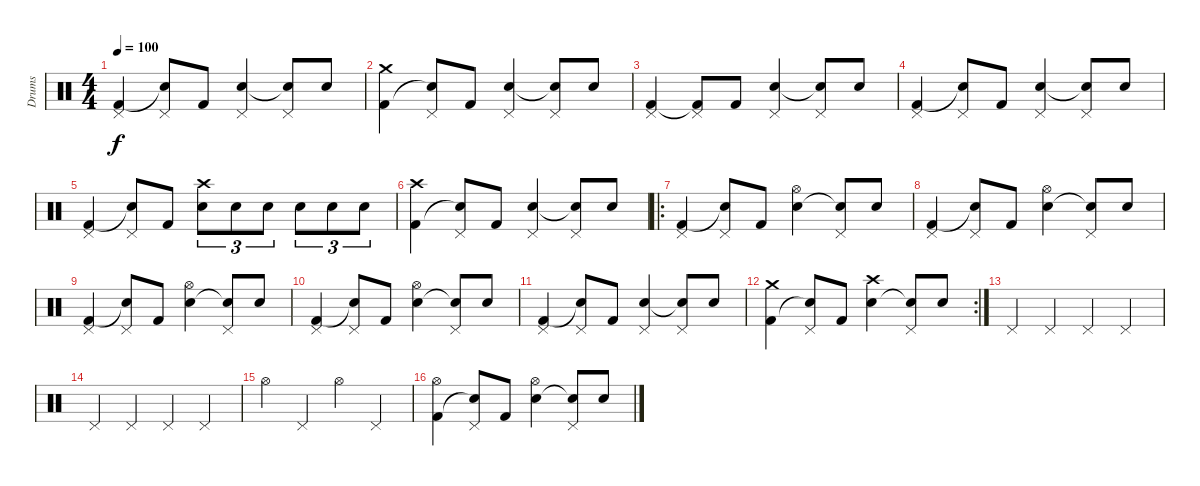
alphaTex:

\track ("Drums" "Drums") {instrument percussion}
\staff {score}
\articulation defaults
\ts (4 4)
\tempo 100
\clef neutral
\ks c
("Pedal Hi-Hat (hit)" "Kick (hit) 2").4{dy f} ("Pedal Hi-Hat (hit)" "Snare (hit)"{t}).8 "Kick (hit) 2".8 ("Pedal Hi-Hat (hit)" "Electric Snare (hit)").4 ("Pedal Hi-Hat (hit)" "Snare (hit)"{t}).8 "Electric Snare (hit)".8 |
("Crash medium (hit)" "Kick (hit) 2").4 ("Pedal Hi-Hat (hit)" "Snare (hit)"{t}).8 "Kick (hit) 2".8 ("Pedal Hi-Hat (hit)" "Electric Snare (hit)").4 ("Pedal Hi-Hat (hit)" "Snare (hit)"{t}).8 "Electric Snare (hit)".8 |
("Pedal Hi-Hat (hit)" "Kick (hit) 2").4 ("Pedal Hi-Hat (hit)" "Kick (hit) 2"{t}).8 "Kick (hit) 2".8 ("Pedal Hi-Hat (hit)" "Electric Snare (hit)").4 ("Pedal Hi-Hat (hit)" "Snare (hit)"{t}).8 "Electric Snare (hit)".8 |
("Pedal Hi-Hat (hit)" "Kick (hit) 2").4 ("Pedal Hi-Hat (hit)" "Snare (hit)"{t}).8 "Kick (hit) 2".8 ("Pedal Hi-Hat (hit)" "Electric Snare (hit)").4 ("Pedal Hi-Hat (hit)" "Snare (hit)"{t}).8 "Electric Snare (hit)".8 |
("Pedal Hi-Hat (hit)" "Kick (hit) 2").4 ("Pedal Hi-Hat (hit)" "Snare (hit)"{t}).8 "Kick (hit) 2".8 ("Crash high (hit)" "Electric Snare (hit)").8{tu (3 2)} "Electric Snare (hit)".8{tu (3 2)} "Electric Snare (hit)".8{tu (3 2)} "Electric Snare (hit)".8{tu (3 2)} "Electric Snare (hit)".8{tu (3 2)} "Electric Snare (hit)".8{tu (3 2)} |
("Crash high (hit)" "Kick (hit) 2").4 ("Pedal Hi-Hat (hit)" "Snare (hit)"{t}).8 "Kick (hit) 2".8 ("Pedal Hi-Hat (hit)" "Electric Snare (hit)").4 ("Pedal Hi-Hat (hit)" "Snare (hit)"{t}).8 "Electric Snare (hit)".8 |
\ro
("Pedal Hi-Hat (hit)" "Kick (hit) 2").4 ("Pedal Hi-Hat (hit)" "Snare (hit)"{t}).8 "Kick (hit) 2".8 ("Hi-Hat (open)" "Electric Snare (hit)").4 ("Pedal Hi-Hat (hit)" "Snare (hit)"{t}).8 "Electric Snare (hit)".8 |
("Pedal Hi-Hat (hit)" "Kick (hit) 2").4 ("Pedal Hi-Hat (hit)" "Snare (hit)"{t}).8 "Kick (hit) 2".8 ("Hi-Hat (open)" "Electric Snare (hit)").4 ("Pedal Hi-Hat (hit)" "Snare (hit)"{t}).8 "Electric Snare (hit)".8 |
("Pedal Hi-Hat (hit)" "Kick (hit) 2").4 ("Pedal Hi-Hat (hit)" "Snare (hit)"{t}).8 "Kick (hit) 2".8 ("Hi-Hat (open)" "Electric Snare (hit)").4 ("Pedal Hi-Hat (hit)" "Snare (hit)"{t}).8 "Electric Snare (hit)".8 |
("Pedal Hi-Hat (hit)" "Kick (hit) 2").4 ("Pedal Hi-Hat (hit)" "Snare (hit)"{t}).8 "Kick (hit) 2".8 ("Hi-Hat (open)" "Electric Snare (hit)").4 ("Pedal Hi-Hat (hit)" "Snare (hit)"{t}).8 "Electric Snare (hit)".8 |
("Pedal Hi-Hat (hit)" "Kick (hit) 2").4 ("Pedal Hi-Hat (hit)" "Snare (hit)"{t}).8 "Kick (hit) 2".8 ("Pedal Hi-Hat (hit)" "Electric Snare (hit)").4 ("Pedal Hi-Hat (hit)" "Snare (hit)"{t}).8 "Electric Snare (hit)".8 |
\rc 2
("Crash medium (hit)" "Kick (hit) 2").4 ("Pedal Hi-Hat (hit)" "Snare (hit)"{t}).8 "Kick (hit) 2".8 ("Crash high (hit)" "Electric Snare (hit)").4 ("Pedal Hi-Hat (hit)" "Snare (hit)"{t}).8 "Electric Snare (hit)".8 |
"Pedal Hi-Hat (hit)".4 "Pedal Hi-Hat (hit)".4 "Pedal Hi-Hat (hit)".4 "Pedal Hi-Hat (hit)".4 |
"Pedal Hi-Hat (hit)".4 "Pedal Hi-Hat (hit)".4 "Pedal Hi-Hat (hit)".4 "Pedal Hi-Hat (hit)".4 |
"Hi-Hat (open)".4 "Pedal Hi-Hat (hit)".4 "Hi-Hat (open)".4 "Pedal Hi-Hat (hit)".4 |
("Hi-Hat (open)" "Kick (hit) 2").4 ("Pedal Hi-Hat (hit)" "Snare (hit)"{t}).8 "Kick (hit) 2".8 ("Hi-Hat (open)" "Electric Snare (hit)").4 ("Pedal Hi-Hat (hit)" "Snare (hit)"{t}).8 "Electric Snare (hit)".8
